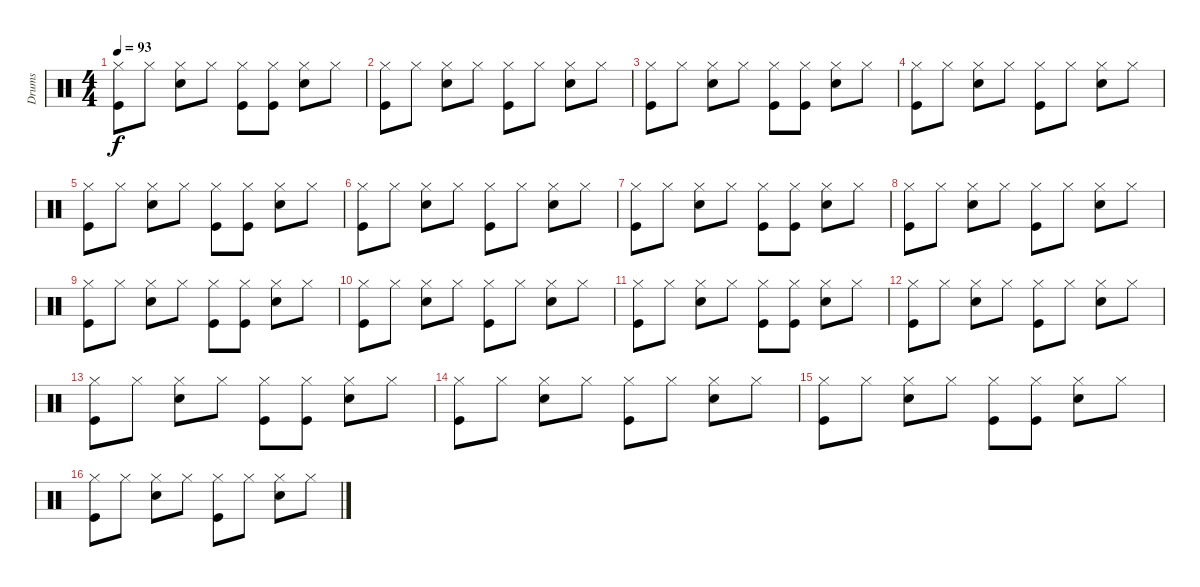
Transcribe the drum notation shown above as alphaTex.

\track ("Drums" "Drums") {instrument percussion}
\staff {score}
\articulation defaults
\ts (4 4)
\tempo 93
\clef neutral
\ks c
("Hi-Hat (closed)" "Kick (hit)").8{dy f} "Hi-Hat (closed)".8 ("Hi-Hat (closed)" "Snare (hit) 2").8 "Hi-Hat (closed)".8 ("Hi-Hat (closed)" "Kick (hit)").8 ("Hi-Hat (closed)" "Kick (hit)").8 ("Hi-Hat (closed)" "Snare (hit) 2").8 "Hi-Hat (closed)".8 |
("Hi-Hat (closed)" "Kick (hit)").8 "Hi-Hat (closed)".8 ("Hi-Hat (closed)" "Snare (hit) 2").8 "Hi-Hat (closed)".8 ("Hi-Hat (closed)" "Kick (hit)").8 "Hi-Hat (closed)".8 ("Hi-Hat (closed)" "Snare (hit) 2").8 "Hi-Hat (closed)".8 |
("Hi-Hat (closed)" "Kick (hit)").8 "Hi-Hat (closed)".8 ("Hi-Hat (closed)" "Snare (hit) 2").8 "Hi-Hat (closed)".8 ("Hi-Hat (closed)" "Kick (hit)").8 ("Hi-Hat (closed)" "Kick (hit)").8 ("Hi-Hat (closed)" "Snare (hit) 2").8 "Hi-Hat (closed)".8 |
("Hi-Hat (closed)" "Kick (hit)").8 "Hi-Hat (closed)".8 ("Hi-Hat (closed)" "Snare (hit) 2").8 "Hi-Hat (closed)".8 ("Hi-Hat (closed)" "Kick (hit)").8 "Hi-Hat (closed)".8 ("Hi-Hat (closed)" "Snare (hit) 2").8 "Hi-Hat (closed)".8 |
("Hi-Hat (closed)" "Kick (hit)").8 "Hi-Hat (closed)".8 ("Hi-Hat (closed)" "Snare (hit) 2").8 "Hi-Hat (closed)".8 ("Hi-Hat (closed)" "Kick (hit)").8 ("Hi-Hat (closed)" "Kick (hit)").8 ("Hi-Hat (closed)" "Snare (hit) 2").8 "Hi-Hat (closed)".8 |
("Hi-Hat (closed)" "Kick (hit)").8 "Hi-Hat (closed)".8 ("Hi-Hat (closed)" "Snare (hit) 2").8 "Hi-Hat (closed)".8 ("Hi-Hat (closed)" "Kick (hit)").8 "Hi-Hat (closed)".8 ("Hi-Hat (closed)" "Snare (hit) 2").8 "Hi-Hat (closed)".8 |
("Hi-Hat (closed)" "Kick (hit)").8 "Hi-Hat (closed)".8 ("Hi-Hat (closed)" "Snare (hit) 2").8 "Hi-Hat (closed)".8 ("Hi-Hat (closed)" "Kick (hit)").8 ("Hi-Hat (closed)" "Kick (hit)").8 ("Hi-Hat (closed)" "Snare (hit) 2").8 "Hi-Hat (closed)".8 |
("Hi-Hat (closed)" "Kick (hit)").8 "Hi-Hat (closed)".8 ("Hi-Hat (closed)" "Snare (hit) 2").8 "Hi-Hat (closed)".8 ("Hi-Hat (closed)" "Kick (hit)").8 "Hi-Hat (closed)".8 ("Hi-Hat (closed)" "Snare (hit) 2").8 "Hi-Hat (closed)".8 |
("Hi-Hat (closed)" "Kick (hit)").8 "Hi-Hat (closed)".8 ("Hi-Hat (closed)" "Snare (hit) 2").8 "Hi-Hat (closed)".8 ("Hi-Hat (closed)" "Kick (hit)").8 ("Hi-Hat (closed)" "Kick (hit)").8 ("Hi-Hat (closed)" "Snare (hit) 2").8 "Hi-Hat (closed)".8 |
("Hi-Hat (closed)" "Kick (hit)").8 "Hi-Hat (closed)".8 ("Hi-Hat (closed)" "Snare (hit) 2").8 "Hi-Hat (closed)".8 ("Hi-Hat (closed)" "Kick (hit)").8 "Hi-Hat (closed)".8 ("Hi-Hat (closed)" "Snare (hit) 2").8 "Hi-Hat (closed)".8 |
("Hi-Hat (closed)" "Kick (hit)").8 "Hi-Hat (closed)".8 ("Hi-Hat (closed)" "Snare (hit) 2").8 "Hi-Hat (closed)".8 ("Hi-Hat (closed)" "Kick (hit)").8 ("Hi-Hat (closed)" "Kick (hit)").8 ("Hi-Hat (closed)" "Snare (hit) 2").8 "Hi-Hat (closed)".8 |
("Hi-Hat (closed)" "Kick (hit)").8 "Hi-Hat (closed)".8 ("Hi-Hat (closed)" "Snare (hit) 2").8 "Hi-Hat (closed)".8 ("Hi-Hat (closed)" "Kick (hit)").8 "Hi-Hat (closed)".8 ("Hi-Hat (closed)" "Snare (hit) 2").8 "Hi-Hat (closed)".8 |
("Hi-Hat (closed)" "Kick (hit)").8 "Hi-Hat (closed)".8 ("Hi-Hat (closed)" "Snare (hit) 2").8 "Hi-Hat (closed)".8 ("Hi-Hat (closed)" "Kick (hit)").8 ("Hi-Hat (closed)" "Kick (hit)").8 ("Hi-Hat (closed)" "Snare (hit) 2").8 "Hi-Hat (closed)".8 |
("Hi-Hat (closed)" "Kick (hit)").8 "Hi-Hat (closed)".8 ("Hi-Hat (closed)" "Snare (hit) 2").8 "Hi-Hat (closed)".8 ("Hi-Hat (closed)" "Kick (hit)").8 "Hi-Hat (closed)".8 ("Hi-Hat (closed)" "Snare (hit) 2").8 "Hi-Hat (closed)".8 |
("Hi-Hat (closed)" "Kick (hit)").8 "Hi-Hat (closed)".8 ("Hi-Hat (closed)" "Snare (hit) 2").8 "Hi-Hat (closed)".8 ("Hi-Hat (closed)" "Kick (hit)").8 ("Hi-Hat (closed)" "Kick (hit)").8 ("Hi-Hat (closed)" "Snare (hit) 2").8 "Hi-Hat (closed)".8 |
("Hi-Hat (closed)" "Kick (hit)").8 "Hi-Hat (closed)".8 ("Hi-Hat (closed)" "Snare (hit) 2").8 "Hi-Hat (closed)".8 ("Hi-Hat (closed)" "Kick (hit)").8 "Hi-Hat (closed)".8 ("Hi-Hat (closed)" "Snare (hit) 2").8 "Hi-Hat (closed)".8
